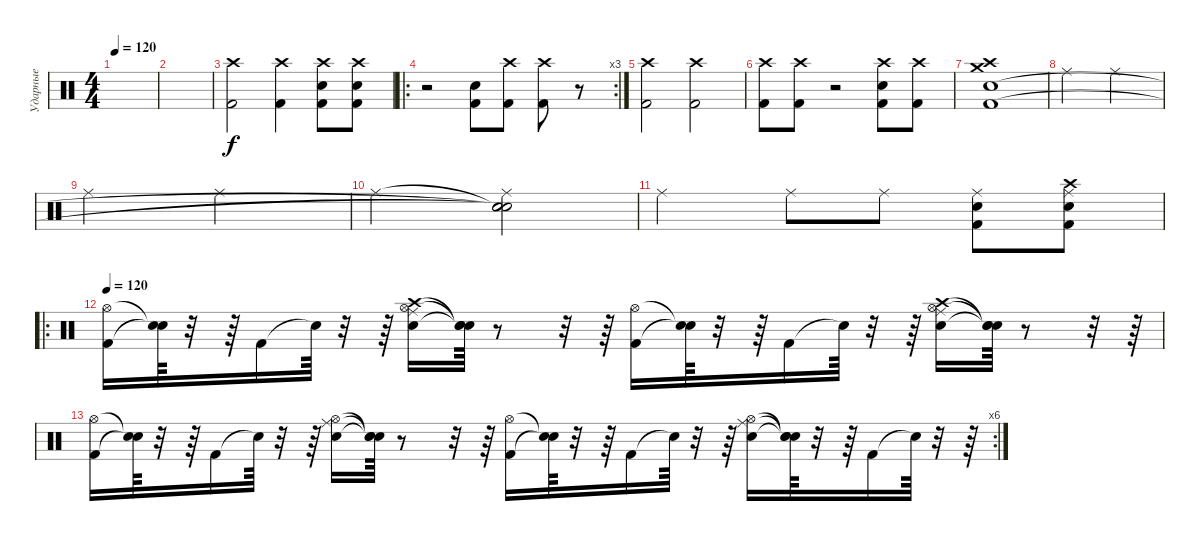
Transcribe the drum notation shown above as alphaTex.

\track ("Ударные" "Ударные") {instrument percussion}
\staff {score}
\articulation defaults
\ts (4 4)
\tempo 120
\clef neutral
\ks c
|
|
("Crash high (hit)" "Kick (hit) 2").2 ("Crash high (hit)" "Kick (hit) 2").4 ("Crash high (hit)" "Electric Snare (hit)" "Kick (hit) 2").8 ("Crash high (hit)" "Electric Snare (hit)" "Kick (hit) 2").8 |
\ro
\rc 3
r.2 ("Electric Snare (hit)" "Kick (hit) 2").8 ("Crash high (hit)" "Kick (hit) 2").8 ("Crash high (hit)" "Kick (hit) 2").8 r.8 |
("Crash high (hit)" "Kick (hit) 2").2 ("Crash high (hit)" "Kick (hit) 2").2 |
("Crash high (hit)" "Kick (hit) 2").8 ("Crash high (hit)" "Kick (hit) 2").8 r.2 ("Crash high (hit)" "Electric Snare (hit)" "Kick (hit) 2").8 ("Crash high (hit)" "Kick (hit) 2").8 |
("Crash medium (hit)" "Crash high (hit)" "Snare (hit) 2" "Kick (hit) 2").1 |
"Ride (middle)".2 "Ride (middle)".2 |
"Ride (middle)".2 "Ride (middle)".2 |
"Ride (middle)".2 ("Snare (hit)"{t} "Ride (middle)" "Snare (hit)"{t} "Snare (hit)"{t}).2 |
"Ride (middle)".2 "Ride (middle)".8 "Ride (middle)".8 ("Ride (middle)" "Electric Snare (hit)" "Kick (hit) 2").8 ("Crash high (hit)" "Ride (middle)" "Electric Snare (hit)" "Kick (hit) 2").8 |
\ro
\tempo 120
("Hi-Hat (open)" "Kick (hit) 2").16 ("Snare (hit)"{t} "Snare (hit)"{t}).64 r.32 r.64 "Kick (hit) 2".16 "Snare (hit)"{t}.64 r.32 r.64 ("Hi-Hat (open)" "Electric Snare (hit)" "Crash high (hit)" "Ride (middle)").16 ("Snare (hit)"{t} "Snare (hit)"{t} "Snare (hit)"{t}).64 r.8 r.32 r.64 ("Hi-Hat (open)" "Kick (hit) 2").16 ("Snare (hit)"{t} "Snare (hit)"{t}).64 r.32 r.64 "Kick (hit) 2".16 "Snare (hit)"{t}.64 r.32 r.64 ("Hi-Hat (open)" "Electric Snare (hit)" "Crash high (hit)" "Ride (middle)").16 ("Snare (hit)"{t} "Snare (hit)"{t} "Snare (hit)"{t}).64 r.8 r.32 r.64 |
\rc 6
("Hi-Hat (open)" "Kick (hit) 2").16 ("Snare (hit)"{t} "Snare (hit)"{t}).64 r.32 r.64 "Kick (hit) 2".16 "Snare (hit)"{t}.64 r.32 r.64 ("Hi-Hat (open)" "Electric Snare (hit)" "Ride (middle)").16 ("Snare (hit)"{t} "Snare (hit)"{t} "Snare (hit)"{t}).64 r.8 r.32 r.64 ("Hi-Hat (open)" "Kick (hit) 2").16 ("Snare (hit)"{t} "Snare (hit)"{t}).64 r.32 r.64 "Kick (hit) 2".16 "Snare (hit)"{t}.64 r.32 r.64 ("Hi-Hat (open)" "Electric Snare (hit)" "Ride (middle)").16 ("Snare (hit)"{t} "Snare (hit)"{t} "Snare (hit)"{t}).64 r.32 r.64 "Kick (hit) 2".16 "Snare (hit)"{t}.64 r.32 r.64
